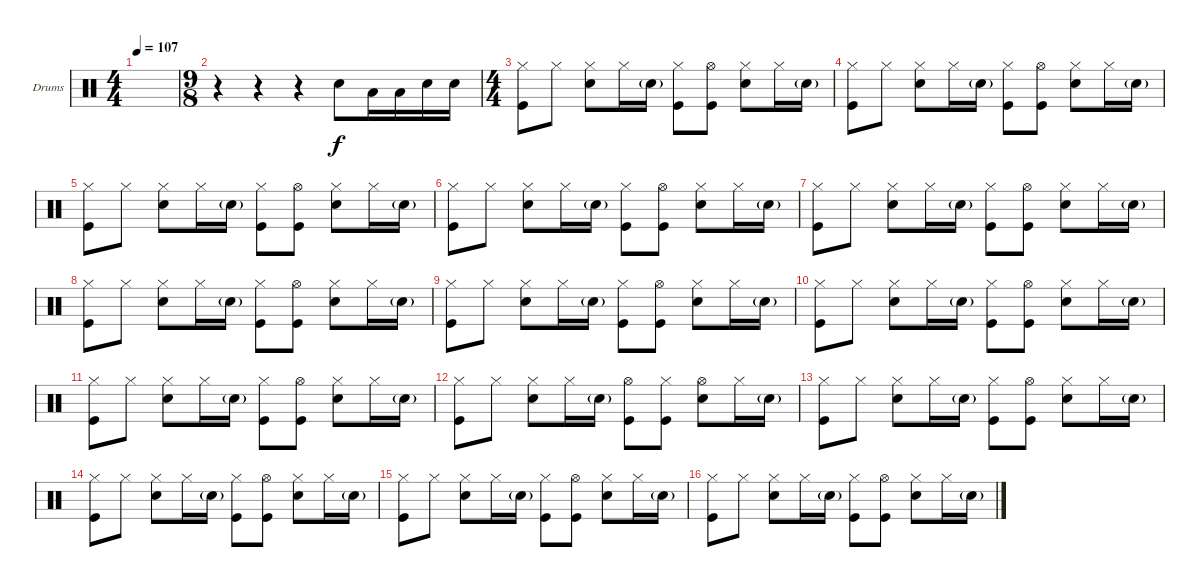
\defaultSystemsLayout 4
\bracketExtendMode groupsimilarinstruments
\firstSystemTrackNameOrientation horizontal
\otherSystemsTrackNameOrientation horizontal
\track ("Drumkit" "Drums") {instrument percussion}
\staff {score}
\articulation defaults
\ts (4 4)
\tempo 107
\clef neutral
\scale
0.474178
\ks c
|
\ts (9 8)
\scale
0.262911 r.4 r.4 r.4 "Snare (hit) 2".8 "Low Tom (hit)".16 "Low Tom (hit)".16 "Snare (hit) 2".16 "Snare (hit) 2".16 |
\ts (4 4)
\scale
0.262911 ("Kick (hit)" "Hi-Hat (closed)").8 "Hi-Hat (closed)".8 ("Hi-Hat (closed)" "Snare (hit) 2").8 "Hi-Hat (closed)".16 "Snare (hit) 2"{g}.16 ("Hi-Hat (closed)" "Kick (hit)").8 ("Hi-Hat (open)" "Kick (hit)").8 ("Hi-Hat (closed)" "Snare (hit) 2").8 "Hi-Hat (closed)".16 "Snare (hit) 2"{g}.16 |
("Kick (hit)" "Hi-Hat (closed)").8 "Hi-Hat (closed)".8 ("Hi-Hat (closed)" "Snare (hit) 2").8 "Hi-Hat (closed)".16 "Snare (hit) 2"{g}.16 ("Hi-Hat (closed)" "Kick (hit)").8 ("Hi-Hat (open)" "Kick (hit)").8 ("Hi-Hat (closed)" "Snare (hit) 2").8 "Hi-Hat (closed)".16 "Snare (hit) 2"{g}.16 |
("Kick (hit)" "Hi-Hat (closed)").8 "Hi-Hat (closed)".8 ("Hi-Hat (closed)" "Snare (hit) 2").8 "Hi-Hat (closed)".16 "Snare (hit) 2"{g}.16 ("Hi-Hat (closed)" "Kick (hit)").8 ("Hi-Hat (open)" "Kick (hit)").8 ("Hi-Hat (closed)" "Snare (hit) 2").8 "Hi-Hat (closed)".16 "Snare (hit) 2"{g}.16 |
("Kick (hit)" "Hi-Hat (closed)").8 "Hi-Hat (closed)".8 ("Hi-Hat (closed)" "Snare (hit) 2").8 "Hi-Hat (closed)".16 "Snare (hit) 2"{g}.16 ("Hi-Hat (closed)" "Kick (hit)").8 ("Hi-Hat (open)" "Kick (hit)").8 ("Hi-Hat (closed)" "Snare (hit) 2").8 "Hi-Hat (closed)".16 "Snare (hit) 2"{g}.16 |
("Kick (hit)" "Hi-Hat (closed)").8 "Hi-Hat (closed)".8 ("Hi-Hat (closed)" "Snare (hit) 2").8 "Hi-Hat (closed)".16 "Snare (hit) 2"{g}.16 ("Hi-Hat (closed)" "Kick (hit)").8 ("Hi-Hat (open)" "Kick (hit)").8 ("Hi-Hat (closed)" "Snare (hit) 2").8 "Hi-Hat (closed)".16 "Snare (hit) 2"{g}.16 |
("Kick (hit)" "Hi-Hat (closed)").8 "Hi-Hat (closed)".8 ("Hi-Hat (closed)" "Snare (hit) 2").8 "Hi-Hat (closed)".16 "Snare (hit) 2"{g}.16 ("Hi-Hat (closed)" "Kick (hit)").8 ("Hi-Hat (open)" "Kick (hit)").8 ("Hi-Hat (closed)" "Snare (hit) 2").8 "Hi-Hat (closed)".16 "Snare (hit) 2"{g}.16 |
("Kick (hit)" "Hi-Hat (closed)").8 "Hi-Hat (closed)".8 ("Hi-Hat (closed)" "Snare (hit) 2").8 "Hi-Hat (closed)".16 "Snare (hit) 2"{g}.16 ("Hi-Hat (closed)" "Kick (hit)").8 ("Hi-Hat (open)" "Kick (hit)").8 ("Hi-Hat (closed)" "Snare (hit) 2").8 "Hi-Hat (closed)".16 "Snare (hit) 2"{g}.16 |
("Kick (hit)" "Hi-Hat (closed)").8 "Hi-Hat (closed)".8 ("Hi-Hat (closed)" "Snare (hit) 2").8 "Hi-Hat (closed)".16 "Snare (hit) 2"{g}.16 ("Hi-Hat (closed)" "Kick (hit)").8 ("Hi-Hat (open)" "Kick (hit)").8 ("Hi-Hat (closed)" "Snare (hit) 2").8 "Hi-Hat (closed)".16 "Snare (hit) 2"{g}.16 |
("Kick (hit)" "Hi-Hat (closed)").8 "Hi-Hat (closed)".8 ("Hi-Hat (closed)" "Snare (hit) 2").8 "Hi-Hat (closed)".16 "Snare (hit) 2"{g}.16 ("Hi-Hat (closed)" "Kick (hit)").8 ("Hi-Hat (open)" "Kick (hit)").8 ("Hi-Hat (closed)" "Snare (hit) 2").8 "Hi-Hat (closed)".16 "Snare (hit) 2"{g}.16 |
("Kick (hit)" "Hi-Hat (closed)").8 "Hi-Hat (closed)".8 ("Hi-Hat (closed)" "Snare (hit) 2").8 "Hi-Hat (closed)".16 "Snare (hit) 2"{g}.16 ("Hi-Hat (open)" "Kick (hit)").8 ("Hi-Hat (closed)" "Kick (hit)").8 ("Hi-Hat (open)" "Snare (hit) 2").8 "Hi-Hat (closed)".16 "Snare (hit) 2"{g}.16 |
("Kick (hit)" "Hi-Hat (closed)").8 "Hi-Hat (closed)".8 ("Hi-Hat (closed)" "Snare (hit) 2").8 "Hi-Hat (closed)".16 "Snare (hit) 2"{g}.16 ("Hi-Hat (closed)" "Kick (hit)").8 ("Hi-Hat (open)" "Kick (hit)").8 ("Hi-Hat (closed)" "Snare (hit) 2").8 "Hi-Hat (closed)".16 "Snare (hit) 2"{g}.16 |
("Kick (hit)" "Hi-Hat (closed)").8 "Hi-Hat (closed)".8 ("Hi-Hat (closed)" "Snare (hit) 2").8 "Hi-Hat (closed)".16 "Snare (hit) 2"{g}.16 ("Hi-Hat (closed)" "Kick (hit)").8 ("Hi-Hat (open)" "Kick (hit)").8 ("Hi-Hat (closed)" "Snare (hit) 2").8 "Hi-Hat (closed)".16 "Snare (hit) 2"{g}.16 |
("Kick (hit)" "Hi-Hat (closed)").8 "Hi-Hat (closed)".8 ("Hi-Hat (closed)" "Snare (hit) 2").8 "Hi-Hat (closed)".16 "Snare (hit) 2"{g}.16 ("Hi-Hat (closed)" "Kick (hit)").8 ("Hi-Hat (open)" "Kick (hit)").8 ("Hi-Hat (closed)" "Snare (hit) 2").8 "Hi-Hat (closed)".16 "Snare (hit) 2"{g}.16 |
("Kick (hit)" "Hi-Hat (closed)").8 "Hi-Hat (closed)".8 ("Hi-Hat (closed)" "Snare (hit) 2").8 "Hi-Hat (closed)".16 "Snare (hit) 2"{g}.16 ("Hi-Hat (closed)" "Kick (hit)").8 ("Hi-Hat (open)" "Kick (hit)").8 ("Hi-Hat (closed)" "Snare (hit) 2").8 "Hi-Hat (closed)".16 "Snare (hit) 2"{g}.16
